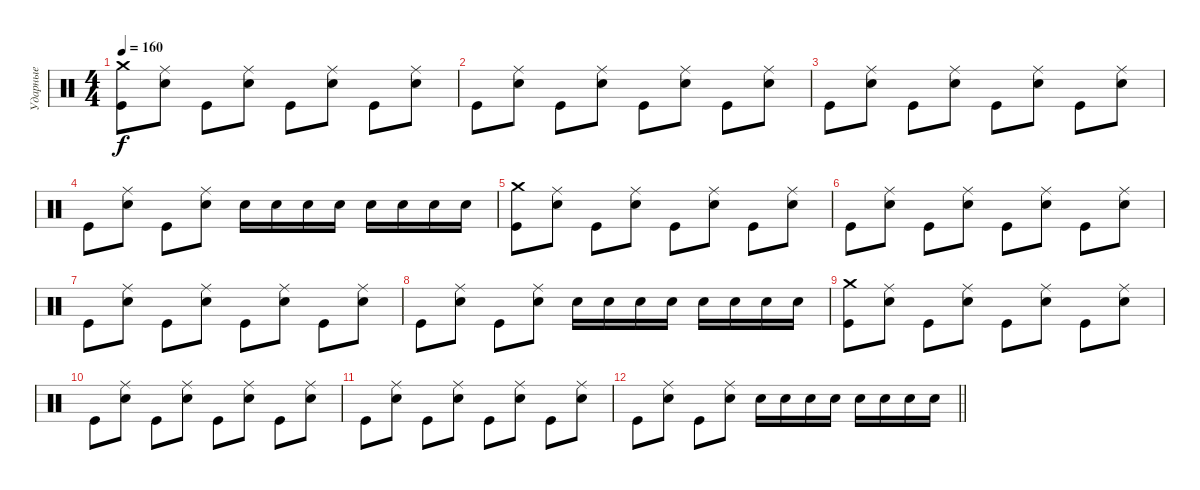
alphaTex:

\track ("Ударные" "Ударные") {instrument percussion}
\staff {score}
\articulation defaults
\ts (4 4)
\tempo 160
\clef neutral
\ks c
("Crash medium (hit)" "Kick (hit)").8{dy f} ("Ride (middle)" "Electric Snare (hit)").8 "Kick (hit)".8 ("Ride (middle)" "Electric Snare (hit)").8 "Kick (hit)".8 ("Ride (middle)" "Electric Snare (hit)").8 "Kick (hit)".8 ("Ride (middle)" "Electric Snare (hit)").8 |
"Kick (hit)".8 ("Ride (middle)" "Electric Snare (hit)").8 "Kick (hit)".8 ("Ride (middle)" "Electric Snare (hit)").8 "Kick (hit)".8 ("Ride (middle)" "Electric Snare (hit)").8 "Kick (hit)".8 ("Ride (middle)" "Electric Snare (hit)").8 |
"Kick (hit)".8 ("Ride (middle)" "Electric Snare (hit)").8 "Kick (hit)".8 ("Ride (middle)" "Electric Snare (hit)").8 "Kick (hit)".8 ("Ride (middle)" "Electric Snare (hit)").8 "Kick (hit)".8 ("Ride (middle)" "Electric Snare (hit)").8 |
"Kick (hit)".8 ("Ride (middle)" "Electric Snare (hit)").8 "Kick (hit)".8 ("Ride (middle)" "Electric Snare (hit)").8 "Electric Snare (hit)".16 "Electric Snare (hit)".16 "Electric Snare (hit)".16 "Electric Snare (hit)".16 "Electric Snare (hit)".16 "Electric Snare (hit)".16 "Electric Snare (hit)".16 "Electric Snare (hit)".16 |
("Crash medium (hit)" "Kick (hit)").8 ("Ride (middle)" "Electric Snare (hit)").8 "Kick (hit)".8 ("Ride (middle)" "Electric Snare (hit)").8 "Kick (hit)".8 ("Ride (middle)" "Electric Snare (hit)").8 "Kick (hit)".8 ("Ride (middle)" "Electric Snare (hit)").8 |
"Kick (hit)".8 ("Ride (middle)" "Electric Snare (hit)").8 "Kick (hit)".8 ("Ride (middle)" "Electric Snare (hit)").8 "Kick (hit)".8 ("Ride (middle)" "Electric Snare (hit)").8 "Kick (hit)".8 ("Ride (middle)" "Electric Snare (hit)").8 |
"Kick (hit)".8 ("Ride (middle)" "Electric Snare (hit)").8 "Kick (hit)".8 ("Ride (middle)" "Electric Snare (hit)").8 "Kick (hit)".8 ("Ride (middle)" "Electric Snare (hit)").8 "Kick (hit)".8 ("Ride (middle)" "Electric Snare (hit)").8 |
"Kick (hit)".8 ("Ride (middle)" "Electric Snare (hit)").8 "Kick (hit)".8 ("Ride (middle)" "Electric Snare (hit)").8 "Electric Snare (hit)".16 "Electric Snare (hit)".16 "Electric Snare (hit)".16 "Electric Snare (hit)".16 "Electric Snare (hit)".16 "Electric Snare (hit)".16 "Electric Snare (hit)".16 "Electric Snare (hit)".16 |
("Crash medium (hit)" "Kick (hit)").8 ("Ride (middle)" "Electric Snare (hit)").8 "Kick (hit)".8 ("Ride (middle)" "Electric Snare (hit)").8 "Kick (hit)".8 ("Ride (middle)" "Electric Snare (hit)").8 "Kick (hit)".8 ("Ride (middle)" "Electric Snare (hit)").8 |
"Kick (hit)".8 ("Ride (middle)" "Electric Snare (hit)").8 "Kick (hit)".8 ("Ride (middle)" "Electric Snare (hit)").8 "Kick (hit)".8 ("Ride (middle)" "Electric Snare (hit)").8 "Kick (hit)".8 ("Ride (middle)" "Electric Snare (hit)").8 |
"Kick (hit)".8 ("Ride (middle)" "Electric Snare (hit)").8 "Kick (hit)".8 ("Ride (middle)" "Electric Snare (hit)").8 "Kick (hit)".8 ("Ride (middle)" "Electric Snare (hit)").8 "Kick (hit)".8 ("Ride (middle)" "Electric Snare (hit)").8 |
\barLineRight lightlight "Kick (hit)".8
("Ride (middle)" "Electric Snare (hit)").8 "Kick (hit)".8 ("Ride (middle)" "Electric Snare (hit)").8 "Electric Snare (hit)".16 "Electric Snare (hit)".16 "Electric Snare (hit)".16 "Electric Snare (hit)".16 "Electric Snare (hit)".16 "Electric Snare (hit)".16 "Electric Snare (hit)".16 "Electric Snare (hit)".16
